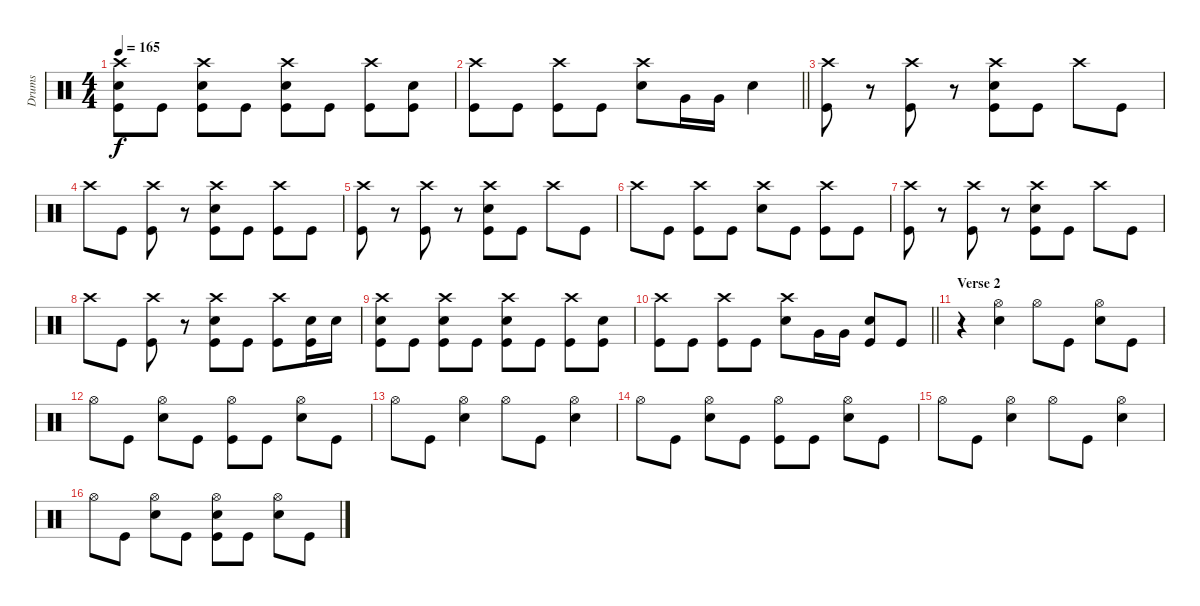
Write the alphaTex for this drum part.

\track ("Drums" "Drums") {instrument percussion}
\staff {score}
\articulation defaults
\ts (4 4)
\tempo 165
\clef neutral
\ks c
("Crash high (hit)" "Snare (hit) 2" "Kick (hit)").8{dy f} "Kick (hit)".8 ("Crash high (hit)" "Snare (hit) 2" "Kick (hit)").8 "Kick (hit)".8 ("Crash high (hit)" "Snare (hit) 2" "Kick (hit)").8 "Kick (hit)".8 ("Crash high (hit)" "Kick (hit)").8 ("Snare (hit) 2" "Kick (hit)").8 |
\barLineRight lightlight
("Crash high (hit)" "Kick (hit)").8 "Kick (hit)".8 ("Crash high (hit)" "Kick (hit)").8 "Kick (hit)".8 ("Crash high (hit)" "Snare (hit) 2").8 "Very Low Tom (hit)".16 "Very Low Tom (hit)".16 "Snare (hit) 2".4 |
("Crash high (hit)" "Kick (hit)").8 r.8 ("Crash high (hit)" "Kick (hit)").8 r.8 ("Crash high (hit)" "Snare (hit) 2" "Kick (hit)").8 "Kick (hit)".8 "Crash high (hit)".8 "Kick (hit)".8 |
"Crash high (hit)".8 "Kick (hit)".8 ("Crash high (hit)" "Kick (hit)").8 r.8 ("Crash high (hit)" "Snare (hit) 2" "Kick (hit)").8 "Kick (hit)".8 ("Crash high (hit)" "Kick (hit)").8 "Kick (hit)".8 |
("Crash high (hit)" "Kick (hit)").8 r.8 ("Crash high (hit)" "Kick (hit)").8 r.8 ("Crash high (hit)" "Snare (hit) 2" "Kick (hit)").8 "Kick (hit)".8 "Crash high (hit)".8 "Kick (hit)".8 |
"Crash high (hit)".8 "Kick (hit)".8 ("Crash high (hit)" "Kick (hit)").8 "Kick (hit)".8 ("Crash high (hit)" "Snare (hit) 2").8 "Kick (hit)".8 ("Crash high (hit)" "Kick (hit)").8 "Kick (hit)".8 |
("Crash high (hit)" "Kick (hit)").8 r.8 ("Crash high (hit)" "Kick (hit)").8 r.8 ("Crash high (hit)" "Snare (hit) 2" "Kick (hit)").8 "Kick (hit)".8 "Crash high (hit)".8 "Kick (hit)".8 |
"Crash high (hit)".8 "Kick (hit)".8 ("Crash high (hit)" "Kick (hit)").8 r.8 ("Crash high (hit)" "Snare (hit) 2" "Kick (hit)").8 "Kick (hit)".8 ("Crash high (hit)" "Kick (hit)").8 ("Snare (hit) 2" "Kick (hit)").16 "Snare (hit) 2".16 |
("Crash high (hit)" "Snare (hit) 2" "Kick (hit)").8 "Kick (hit)".8 ("Crash high (hit)" "Snare (hit) 2" "Kick (hit)").8 "Kick (hit)".8 ("Crash high (hit)" "Snare (hit) 2" "Kick (hit)").8 "Kick (hit)".8 ("Crash high (hit)" "Kick (hit)").8 ("Snare (hit) 2" "Kick (hit)").8 |
\barLineRight lightlight
("Crash high (hit)" "Kick (hit)").8 "Kick (hit)".8 ("Crash high (hit)" "Kick (hit)").8 "Kick (hit)".8 ("Crash high (hit)" "Snare (hit) 2").8 "Very Low Tom (hit)".16 "Very Low Tom (hit)".16 ("Snare (hit) 2" "Kick (hit)").8 "Kick (hit)".8 |
\section ("" "Verse 2")
r.4 ("Hi-Hat (open)" "Snare (hit) 2").4 "Hi-Hat (open)".8 "Kick (hit)".8 ("Hi-Hat (open)" "Snare (hit) 2").8 "Kick (hit)".8 |
"Hi-Hat (open)".8 "Kick (hit)".8 ("Hi-Hat (open)" "Snare (hit) 2").8 "Kick (hit)".8 ("Hi-Hat (open)" "Kick (hit)").8 "Kick (hit)".8 ("Hi-Hat (open)" "Snare (hit) 2").8 "Kick (hit)".8 |
"Hi-Hat (open)".8 "Kick (hit)".8 ("Hi-Hat (open)" "Snare (hit) 2").4 "Hi-Hat (open)".8 "Kick (hit)".8 ("Hi-Hat (open)" "Snare (hit) 2").4 |
"Hi-Hat (open)".8 "Kick (hit)".8 ("Hi-Hat (open)" "Snare (hit) 2").8 "Kick (hit)".8 ("Hi-Hat (open)" "Kick (hit)").8 "Kick (hit)".8 ("Hi-Hat (open)" "Snare (hit) 2").8 "Kick (hit)".8 |
"Hi-Hat (open)".8 "Kick (hit)".8 ("Hi-Hat (open)" "Snare (hit) 2").4 "Hi-Hat (open)".8 "Kick (hit)".8 ("Hi-Hat (open)" "Snare (hit) 2").4 |
"Hi-Hat (open)".8 "Kick (hit)".8 ("Hi-Hat (open)" "Snare (hit) 2").8 "Kick (hit)".8 ("Hi-Hat (open)" "Snare (hit) 2" "Kick (hit)").8 "Kick (hit)".8 ("Hi-Hat (open)" "Snare (hit) 2").8 "Kick (hit)".8
